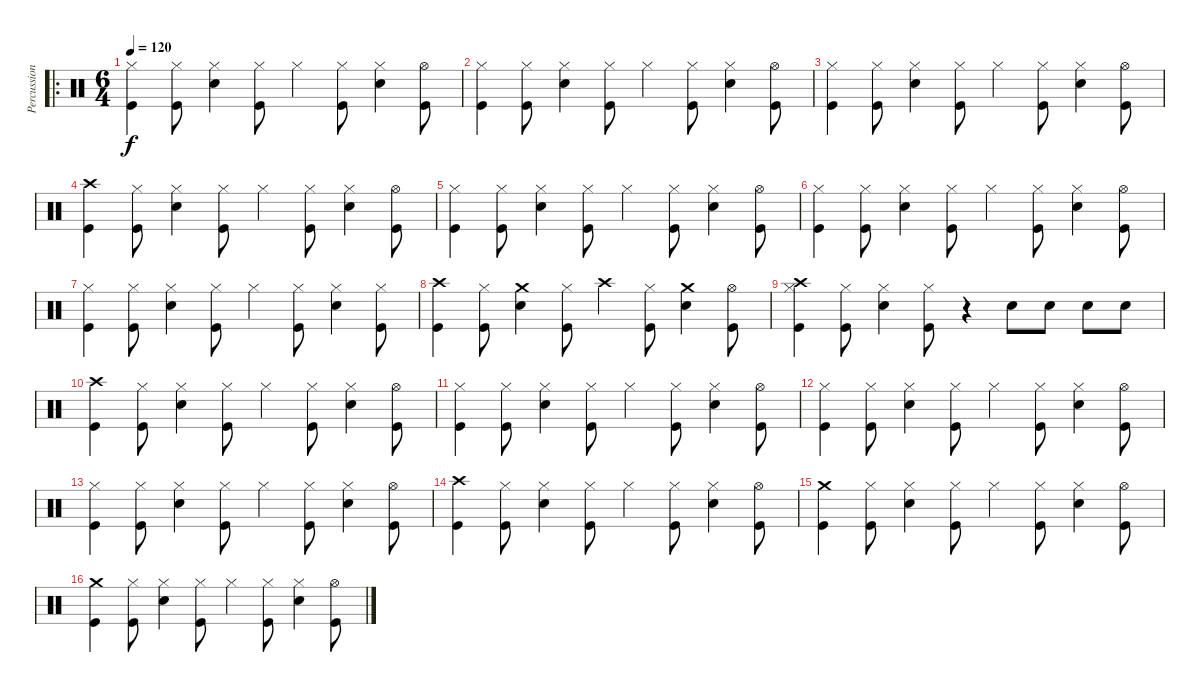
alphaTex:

\track ("Percussions" "Percussion") {instrument percussion}
\staff {score}
\articulation defaults
\ro
\ts (6 4)
\tempo 120
\clef neutral
\ks c
("Hi-Hat (closed)" "Kick (hit)").4{dy f} ("Hi-Hat (closed)" "Kick (hit)").8 ("Hi-Hat (closed)" "Snare (hit) 2").4 ("Hi-Hat (closed)" "Kick (hit)").8 "Hi-Hat (closed)".4 ("Hi-Hat (closed)" "Kick (hit)").8 ("Hi-Hat (closed)" "Snare (hit) 2").4 ("Hi-Hat (open)" "Kick (hit)").8 |
("Hi-Hat (closed)" "Kick (hit)").4 ("Hi-Hat (closed)" "Kick (hit)").8 ("Hi-Hat (closed)" "Snare (hit) 2").4 ("Hi-Hat (closed)" "Kick (hit)").8 "Hi-Hat (closed)".4 ("Hi-Hat (closed)" "Kick (hit)").8 ("Hi-Hat (closed)" "Snare (hit) 2").4 ("Hi-Hat (open)" "Kick (hit)").8 |
("Hi-Hat (closed)" "Kick (hit)").4 ("Hi-Hat (closed)" "Kick (hit)").8 ("Hi-Hat (closed)" "Snare (hit) 2").4 ("Hi-Hat (closed)" "Kick (hit)").8 "Hi-Hat (closed)".4 ("Hi-Hat (closed)" "Kick (hit)").8 ("Hi-Hat (closed)" "Snare (hit) 2").4 ("Hi-Hat (open)" "Kick (hit)").8 |
("Crash high (hit)" "Kick (hit)").4 ("Hi-Hat (closed)" "Kick (hit)").8 ("Hi-Hat (closed)" "Snare (hit) 2").4 ("Hi-Hat (closed)" "Kick (hit)").8 "Hi-Hat (closed)".4 ("Hi-Hat (closed)" "Kick (hit)").8 ("Hi-Hat (closed)" "Snare (hit) 2").4 ("Hi-Hat (open)" "Kick (hit)").8 |
("Hi-Hat (closed)" "Kick (hit)").4 ("Hi-Hat (closed)" "Kick (hit)").8 ("Hi-Hat (closed)" "Snare (hit) 2").4 ("Hi-Hat (closed)" "Kick (hit)").8 "Hi-Hat (closed)".4 ("Hi-Hat (closed)" "Kick (hit)").8 ("Hi-Hat (closed)" "Snare (hit) 2").4 ("Hi-Hat (open)" "Kick (hit)").8 |
("Hi-Hat (closed)" "Kick (hit)").4 ("Hi-Hat (closed)" "Kick (hit)").8 ("Hi-Hat (closed)" "Snare (hit) 2").4 ("Hi-Hat (closed)" "Kick (hit)").8 "Hi-Hat (closed)".4 ("Hi-Hat (closed)" "Kick (hit)").8 ("Hi-Hat (closed)" "Snare (hit) 2").4 ("Hi-Hat (open)" "Kick (hit)").8 |
("Hi-Hat (closed)" "Kick (hit)").4 ("Hi-Hat (closed)" "Kick (hit)").8 ("Hi-Hat (closed)" "Snare (hit) 2").4 ("Hi-Hat (closed)" "Kick (hit)").8 "Hi-Hat (closed)".4 ("Hi-Hat (closed)" "Kick (hit)").8 ("Hi-Hat (closed)" "Snare (hit) 2").4 ("Hi-Hat (closed)" "Kick (hit)").8 |
("Crash high (hit)" "Kick (hit)").4 ("Hi-Hat (closed)" "Kick (hit)").8 ("Crash medium (hit)" "Snare (hit) 2").4 ("Hi-Hat (closed)" "Kick (hit)").8 "Crash high (hit)".4 ("Hi-Hat (closed)" "Kick (hit)").8 ("Crash medium (hit)" "Snare (hit) 2").4 ("Hi-Hat (open)" "Kick (hit)").8 |
("Hi-Hat (closed)" "Crash high (hit)" "Kick (hit)").4 ("Hi-Hat (closed)" "Kick (hit)").8 ("Hi-Hat (closed)" "Snare (hit) 2").4 ("Hi-Hat (closed)" "Kick (hit)").8 r.4 "Snare (hit) 2".8 "Snare (hit) 2".8 "Snare (hit) 2".8 "Snare (hit) 2".8 |
("Crash high (hit)" "Kick (hit)").4 ("Hi-Hat (closed)" "Kick (hit)").8 ("Hi-Hat (closed)" "Snare (hit) 2").4 ("Hi-Hat (closed)" "Kick (hit)").8 "Hi-Hat (closed)".4 ("Hi-Hat (closed)" "Kick (hit)").8 ("Hi-Hat (closed)" "Snare (hit) 2").4 ("Hi-Hat (open)" "Kick (hit)").8 |
("Hi-Hat (closed)" "Kick (hit)").4 ("Hi-Hat (closed)" "Kick (hit)").8 ("Hi-Hat (closed)" "Snare (hit) 2").4 ("Hi-Hat (closed)" "Kick (hit)").8 "Hi-Hat (closed)".4 ("Hi-Hat (closed)" "Kick (hit)").8 ("Hi-Hat (closed)" "Snare (hit) 2").4 ("Hi-Hat (open)" "Kick (hit)").8 |
("Hi-Hat (closed)" "Kick (hit)").4 ("Hi-Hat (closed)" "Kick (hit)").8 ("Hi-Hat (closed)" "Snare (hit) 2").4 ("Hi-Hat (closed)" "Kick (hit)").8 "Hi-Hat (closed)".4 ("Hi-Hat (closed)" "Kick (hit)").8 ("Hi-Hat (closed)" "Snare (hit) 2").4 ("Hi-Hat (open)" "Kick (hit)").8 |
("Hi-Hat (closed)" "Kick (hit)").4 ("Hi-Hat (closed)" "Kick (hit)").8 ("Hi-Hat (closed)" "Snare (hit) 2").4 ("Hi-Hat (closed)" "Kick (hit)").8 "Hi-Hat (closed)".4 ("Hi-Hat (closed)" "Kick (hit)").8 ("Hi-Hat (closed)" "Snare (hit) 2").4 ("Hi-Hat (open)" "Kick (hit)").8 |
("Crash high (hit)" "Kick (hit)").4 ("Hi-Hat (closed)" "Kick (hit)").8 ("Hi-Hat (closed)" "Snare (hit) 2").4 ("Hi-Hat (closed)" "Kick (hit)").8 "Hi-Hat (closed)".4 ("Hi-Hat (closed)" "Kick (hit)").8 ("Hi-Hat (closed)" "Snare (hit) 2").4 ("Hi-Hat (open)" "Kick (hit)").8 |
("Crash medium (hit)" "Kick (hit)").4 ("Hi-Hat (closed)" "Kick (hit)").8 ("Hi-Hat (closed)" "Snare (hit) 2").4 ("Hi-Hat (closed)" "Kick (hit)").8 "Hi-Hat (closed)".4 ("Hi-Hat (closed)" "Kick (hit)").8 ("Hi-Hat (closed)" "Snare (hit) 2").4 ("Hi-Hat (open)" "Kick (hit)").8 |
("Crash medium (hit)" "Kick (hit)").4 ("Hi-Hat (closed)" "Kick (hit)").8 ("Hi-Hat (closed)" "Snare (hit) 2").4 ("Hi-Hat (closed)" "Kick (hit)").8 "Hi-Hat (closed)".4 ("Hi-Hat (closed)" "Kick (hit)").8 ("Hi-Hat (closed)" "Snare (hit) 2").4 ("Hi-Hat (open)" "Kick (hit)").8
